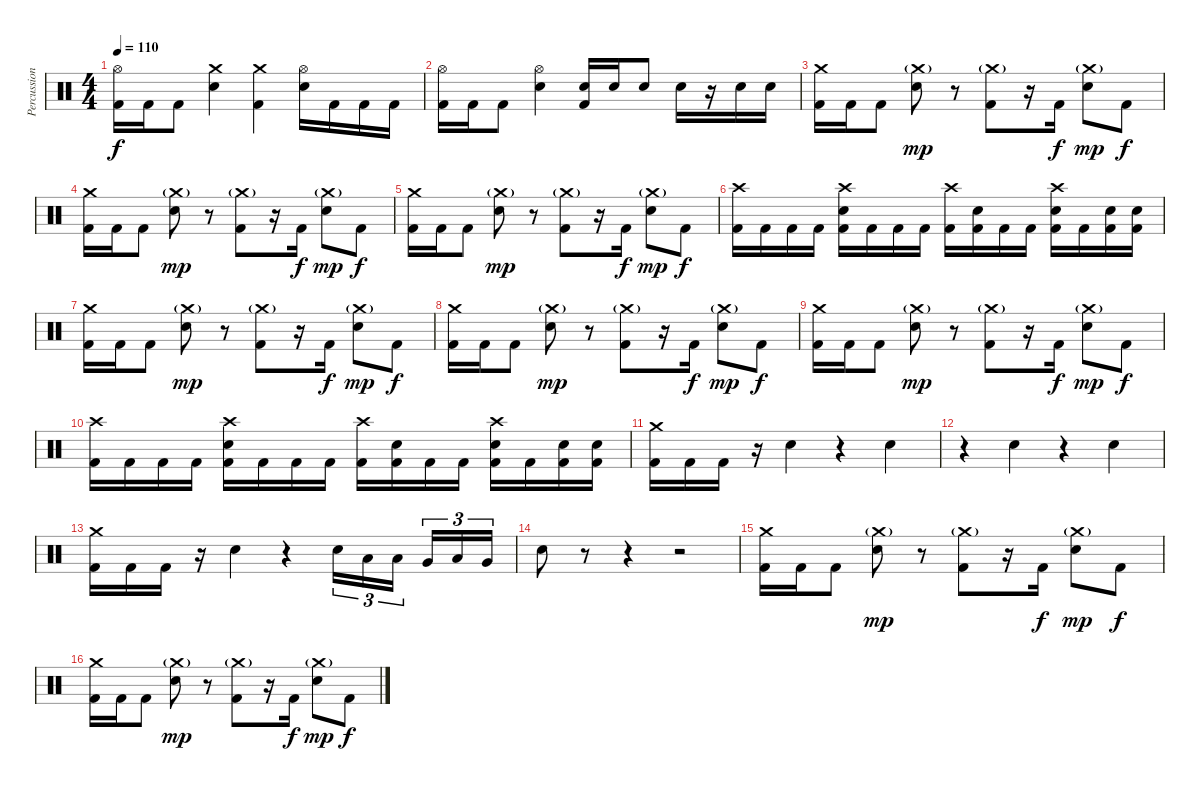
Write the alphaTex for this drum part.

\track ("Percussion" "Percussion") {instrument percussion}
\staff {score}
\articulation defaults
\ts (4 4)
\tempo 110
\clef neutral
\ks c
("Hi-Hat (open)" "Kick (hit) 2").16{dy f} "Kick (hit) 2".16 "Kick (hit) 2".8 ("Crash medium (hit)" "Electric Snare (hit)").4 ("Crash medium (hit)" "Kick (hit) 2").4 ("Hi-Hat (open)" "Electric Snare (hit)").16 "Kick (hit) 2".16 "Kick (hit) 2".16 "Kick (hit) 2".16 |
("Hi-Hat (open)" "Kick (hit) 2").16 "Kick (hit) 2".16 "Kick (hit) 2".8 ("Hi-Hat (open)" "Electric Snare (hit)").4 ("Electric Snare (hit)" "Kick (hit) 2").16 "Electric Snare (hit)".16 "Electric Snare (hit)".8 "Electric Snare (hit)".16 r.16 "Electric Snare (hit)".16 "Electric Snare (hit)".16 |
("Crash medium (hit)" "Kick (hit) 2").16 "Kick (hit) 2".16 "Kick (hit) 2".8 ("Crash medium (hit)"{g} "Electric Snare (hit)").8{dy mp} r.8 ("Crash medium (hit)"{g} "Kick (hit) 2").8 r.16 "Kick (hit) 2".16{dy f} ("Crash medium (hit)"{g} "Electric Snare (hit)").8{dy mp} "Kick (hit) 2".8{dy f} |
("Crash medium (hit)" "Kick (hit) 2").16 "Kick (hit) 2".16 "Kick (hit) 2".8 ("Crash medium (hit)"{g} "Electric Snare (hit)").8{dy mp} r.8 ("Crash medium (hit)"{g} "Kick (hit) 2").8 r.16 "Kick (hit) 2".16{dy f} ("Crash medium (hit)"{g} "Electric Snare (hit)").8{dy mp} "Kick (hit) 2".8{dy f} |
("Crash medium (hit)" "Kick (hit) 2").16 "Kick (hit) 2".16 "Kick (hit) 2".8 ("Crash medium (hit)"{g} "Electric Snare (hit)").8{dy mp} r.8 ("Crash medium (hit)"{g} "Kick (hit) 2").8 r.16 "Kick (hit) 2".16{dy f} ("Crash medium (hit)"{g} "Electric Snare (hit)").8{dy mp} "Kick (hit) 2".8{dy f} |
("Crash high (hit)" "Kick (hit) 2").16 "Kick (hit) 2".16 "Kick (hit) 2".16 "Kick (hit) 2".16 ("Crash high (hit)" "Electric Snare (hit)" "Kick (hit) 2").16 "Kick (hit) 2".16 "Kick (hit) 2".16 "Kick (hit) 2".16 ("Crash high (hit)" "Kick (hit) 2").16 ("Electric Snare (hit)" "Kick (hit) 2").16 "Kick (hit) 2".16 "Kick (hit) 2".16 ("Crash high (hit)" "Electric Snare (hit)" "Kick (hit) 2").16 "Kick (hit) 2".16 ("Electric Snare (hit)" "Kick (hit) 2").16 ("Electric Snare (hit)" "Kick (hit) 2").16 |
("Crash medium (hit)" "Kick (hit) 2").16 "Kick (hit) 2".16 "Kick (hit) 2".8 ("Crash medium (hit)"{g} "Electric Snare (hit)").8{dy mp} r.8 ("Crash medium (hit)"{g} "Kick (hit) 2").8 r.16 "Kick (hit) 2".16{dy f} ("Crash medium (hit)"{g} "Electric Snare (hit)").8{dy mp} "Kick (hit) 2".8{dy f} |
("Crash medium (hit)" "Kick (hit) 2").16 "Kick (hit) 2".16 "Kick (hit) 2".8 ("Crash medium (hit)"{g} "Electric Snare (hit)").8{dy mp} r.8 ("Crash medium (hit)"{g} "Kick (hit) 2").8 r.16 "Kick (hit) 2".16{dy f} ("Crash medium (hit)"{g} "Electric Snare (hit)").8{dy mp} "Kick (hit) 2".8{dy f} |
("Crash medium (hit)" "Kick (hit) 2").16 "Kick (hit) 2".16 "Kick (hit) 2".8 ("Crash medium (hit)"{g} "Electric Snare (hit)").8{dy mp} r.8 ("Crash medium (hit)"{g} "Kick (hit) 2").8 r.16 "Kick (hit) 2".16{dy f} ("Crash medium (hit)"{g} "Electric Snare (hit)").8{dy mp} "Kick (hit) 2".8{dy f} |
("Crash high (hit)" "Kick (hit) 2").16 "Kick (hit) 2".16 "Kick (hit) 2".16 "Kick (hit) 2".16 ("Crash high (hit)" "Electric Snare (hit)" "Kick (hit) 2").16 "Kick (hit) 2".16 "Kick (hit) 2".16 "Kick (hit) 2".16 ("Crash high (hit)" "Kick (hit) 2").16 ("Electric Snare (hit)" "Kick (hit) 2").16 "Kick (hit) 2".16 "Kick (hit) 2".16 ("Crash high (hit)" "Electric Snare (hit)" "Kick (hit) 2").16 "Kick (hit) 2".16 ("Electric Snare (hit)" "Kick (hit) 2").16 ("Electric Snare (hit)" "Kick (hit) 2").16 |
("Crash medium (hit)" "Kick (hit) 2").16 "Kick (hit) 2".16 "Kick (hit) 2".16 r.16 "Electric Snare (hit)".4 r.4 "Electric Snare (hit)".4 |
r.4 "Electric Snare (hit)".4 r.4 "Electric Snare (hit)".4 |
("Crash medium (hit)" "Kick (hit) 2").16 "Kick (hit) 2".16 "Kick (hit) 2".16 r.16 "Electric Snare (hit)".4 r.4 "Electric Snare (hit)".16{tu (3 2)} "Low Floor Tom (hit)".16{tu (3 2)} "Low Tom (hit)".16{tu (3 2) beam splitsecondary} "Very Low Tom (hit)".16{tu (3 2)} "Low Tom (hit)".16{tu (3 2)} "Very Low Tom (hit)".16{tu (3 2)} |
"Electric Snare (hit)".8 r.8 r.4 r.2 |
("Crash medium (hit)" "Kick (hit) 2").16 "Kick (hit) 2".16 "Kick (hit) 2".8 ("Crash medium (hit)"{g} "Electric Snare (hit)").8{dy mp} r.8 ("Crash medium (hit)"{g} "Kick (hit) 2").8 r.16 "Kick (hit) 2".16{dy f} ("Crash medium (hit)"{g} "Electric Snare (hit)").8{dy mp} "Kick (hit) 2".8{dy f} |
("Crash medium (hit)" "Kick (hit) 2").16 "Kick (hit) 2".16 "Kick (hit) 2".8 ("Crash medium (hit)"{g} "Electric Snare (hit)").8{dy mp} r.8 ("Crash medium (hit)"{g} "Kick (hit) 2").8 r.16 "Kick (hit) 2".16{dy f} ("Crash medium (hit)"{g} "Electric Snare (hit)").8{dy mp} "Kick (hit) 2".8{dy f}
